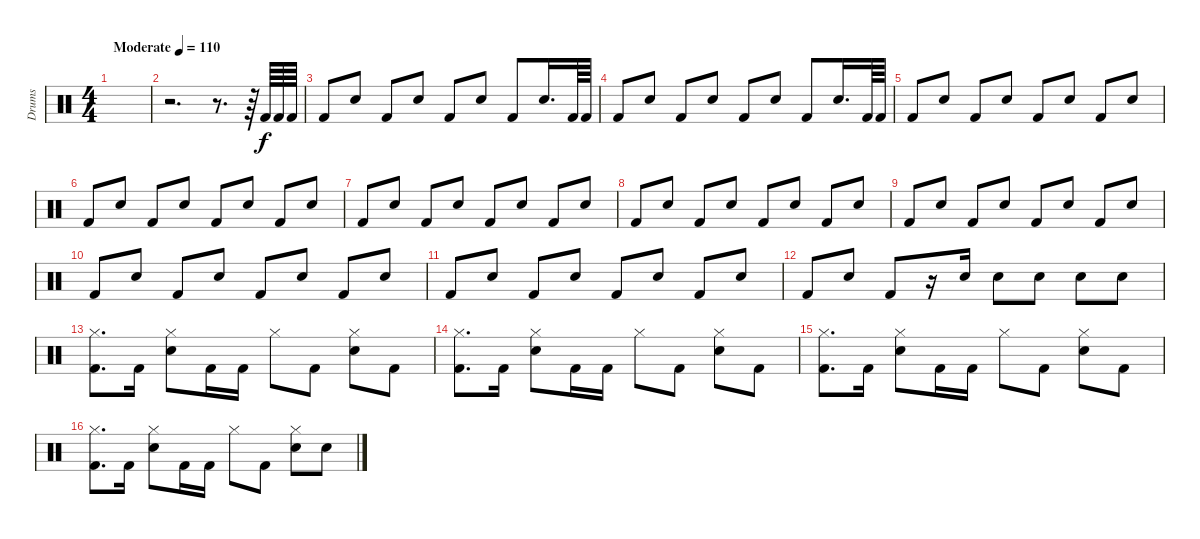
\track ("Drums" "Drums") {instrument percussion}
\staff {score}
\articulation defaults
\ts (4 4)
\tempo (110 "Moderate")
\clef neutral
\ks c
|
r.2{d} r.8{d} r.64 "Kick (hit) 2".64 "Kick (hit) 2".64 "Kick (hit) 2".64 |
"Kick (hit) 2".8 "Snare (hit) 2".8 "Kick (hit) 2".8 "Snare (hit) 2".8 "Kick (hit) 2".8 "Snare (hit) 2".8 "Kick (hit) 2".8 "Snare (hit) 2".16{d} "Kick (hit) 2".64 "Kick (hit) 2".64 |
"Kick (hit) 2".8 "Snare (hit) 2".8 "Kick (hit) 2".8 "Snare (hit) 2".8 "Kick (hit) 2".8 "Snare (hit) 2".8 "Kick (hit) 2".8 "Snare (hit) 2".16{d} "Kick (hit) 2".64 "Kick (hit) 2".64 |
"Kick (hit) 2".8 "Snare (hit) 2".8 "Kick (hit) 2".8 "Snare (hit) 2".8 "Kick (hit) 2".8 "Snare (hit) 2".8 "Kick (hit) 2".8 "Snare (hit) 2".8 |
"Kick (hit) 2".8 "Snare (hit) 2".8 "Kick (hit) 2".8 "Snare (hit) 2".8 "Kick (hit) 2".8 "Snare (hit) 2".8 "Kick (hit) 2".8 "Snare (hit) 2".8 |
"Kick (hit) 2".8 "Snare (hit) 2".8 "Kick (hit) 2".8 "Snare (hit) 2".8 "Kick (hit) 2".8 "Snare (hit) 2".8 "Kick (hit) 2".8 "Snare (hit) 2".8 |
"Kick (hit) 2".8 "Snare (hit) 2".8 "Kick (hit) 2".8 "Snare (hit) 2".8 "Kick (hit) 2".8 "Snare (hit) 2".8 "Kick (hit) 2".8 "Snare (hit) 2".8 |
"Kick (hit) 2".8 "Snare (hit) 2".8 "Kick (hit) 2".8 "Snare (hit) 2".8 "Kick (hit) 2".8 "Snare (hit) 2".8 "Kick (hit) 2".8 "Snare (hit) 2".8 |
"Kick (hit) 2".8 "Snare (hit) 2".8 "Kick (hit) 2".8 "Snare (hit) 2".8 "Kick (hit) 2".8 "Snare (hit) 2".8 "Kick (hit) 2".8 "Snare (hit) 2".8 |
"Kick (hit) 2".8 "Snare (hit) 2".8 "Kick (hit) 2".8 "Snare (hit) 2".8 "Kick (hit) 2".8 "Snare (hit) 2".8 "Kick (hit) 2".8 "Snare (hit) 2".8 |
"Kick (hit) 2".8 "Snare (hit) 2".8 "Kick (hit) 2".8 r.16 "Snare (hit) 2".16 "Snare (hit) 2".8 "Snare (hit) 2".8 "Snare (hit) 2".8 "Snare (hit) 2".8 |
("Hi-Hat (closed)" "Kick (hit) 2").8{d} "Kick (hit) 2".16 ("Snare (hit) 2" "Hi-Hat (closed)").8 "Kick (hit) 2".16 "Kick (hit) 2".16 "Hi-Hat (closed)".8 "Kick (hit) 2".8 ("Snare (hit) 2" "Hi-Hat (closed)").8 "Kick (hit) 2".8 |
("Hi-Hat (closed)" "Kick (hit) 2").8{d} "Kick (hit) 2".16 ("Snare (hit) 2" "Hi-Hat (closed)").8 "Kick (hit) 2".16 "Kick (hit) 2".16 "Hi-Hat (closed)".8 "Kick (hit) 2".8 ("Snare (hit) 2" "Hi-Hat (closed)").8 "Kick (hit) 2".8 |
("Hi-Hat (closed)" "Kick (hit) 2").8{d} "Kick (hit) 2".16 ("Snare (hit) 2" "Hi-Hat (closed)").8 "Kick (hit) 2".16 "Kick (hit) 2".16 "Hi-Hat (closed)".8 "Kick (hit) 2".8 ("Snare (hit) 2" "Hi-Hat (closed)").8 "Kick (hit) 2".8 |
("Hi-Hat (closed)" "Kick (hit) 2").8{d} "Kick (hit) 2".16 ("Snare (hit) 2" "Hi-Hat (closed)").8 "Kick (hit) 2".16 "Kick (hit) 2".16 "Hi-Hat (closed)".8 "Kick (hit) 2".8 ("Snare (hit) 2" "Hi-Hat (closed)").8 "Snare (hit) 2".8
